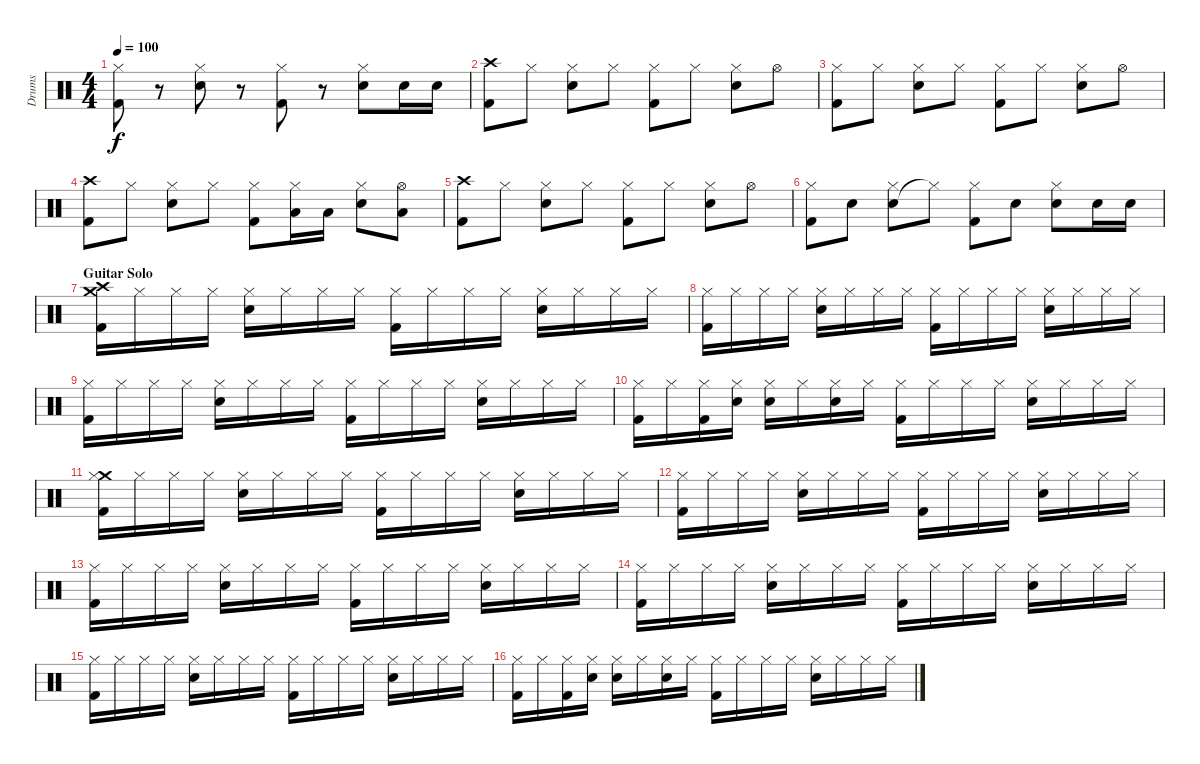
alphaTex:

\track ("Drums" "Drums") {instrument percussion}
\staff {score}
\articulation defaults
\ts (4 4)
\tempo 100
\clef neutral
\ks c
("Kick (hit) 2" "Hi-Hat (closed)").8{dy f} r.8 ("Snare (hit) 2" "Hi-Hat (closed)").8 r.8 ("Kick (hit) 2" "Hi-Hat (closed)").8 r.8 ("Snare (hit) 2" "Hi-Hat (closed)").8 "Snare (hit) 2".16 "Snare (hit) 2".16 |
("Kick (hit) 2" "Crash high (hit)").8 "Hi-Hat (closed)".8 ("Snare (hit) 2" "Hi-Hat (closed)").8 "Hi-Hat (closed)".8 ("Kick (hit) 2" "Hi-Hat (closed)").8 "Hi-Hat (closed)".8 ("Snare (hit) 2" "Hi-Hat (closed)").8 "Hi-Hat (open)".8 |
("Kick (hit) 2" "Hi-Hat (closed)").8 "Hi-Hat (closed)".8 ("Snare (hit) 2" "Hi-Hat (closed)").8 "Hi-Hat (closed)".8 ("Kick (hit) 2" "Hi-Hat (closed)").8 "Hi-Hat (closed)".8 ("Snare (hit) 2" "Hi-Hat (closed)").8 "Hi-Hat (open)".8 |
("Kick (hit) 2" "Crash high (hit)").8 "Hi-Hat (closed)".8 ("Snare (hit) 2" "Hi-Hat (closed)").8 "Hi-Hat (closed)".8 ("Kick (hit) 2" "Hi-Hat (closed)").8 ("Low Tom (hit)" "Hi-Hat (closed)").16 "Low Tom (hit)".16 ("Snare (hit) 2" "Hi-Hat (closed)").8 ("Low Tom (hit)" "Hi-Hat (open)").8 |
("Kick (hit) 2" "Crash high (hit)").8 "Hi-Hat (closed)".8 ("Snare (hit) 2" "Hi-Hat (closed)").8 "Hi-Hat (closed)".8 ("Kick (hit) 2" "Hi-Hat (closed)").8 "Hi-Hat (closed)".8 ("Snare (hit) 2" "Hi-Hat (closed)").8 "Hi-Hat (open)".8 |
("Kick (hit) 2" "Hi-Hat (closed)").8 "Snare (hit) 2".8 ("Snare (hit) 2" "Hi-Hat (closed)").8 "Hi-Hat (closed)"{t}.8 ("Kick (hit) 2" "Hi-Hat (closed)").8 "Snare (hit) 2".8 ("Snare (hit) 2" "Hi-Hat (closed)").8 "Snare (hit) 2".16 "Snare (hit) 2".16 |
\section ("" "Guitar Solo")
("Crash medium (hit)" "Crash high (hit)" "Kick (hit) 2").16 "Hi-Hat (closed)".16 "Hi-Hat (closed)".16 "Hi-Hat (closed)".16 ("Hi-Hat (closed)" "Snare (hit) 2").16 "Hi-Hat (closed)".16 "Hi-Hat (closed)".16 "Hi-Hat (closed)".16 ("Hi-Hat (closed)" "Kick (hit) 2").16 "Hi-Hat (closed)".16 "Hi-Hat (closed)".16 "Hi-Hat (closed)".16 ("Hi-Hat (closed)" "Snare (hit) 2").16 "Hi-Hat (closed)".16 "Hi-Hat (closed)".16 "Hi-Hat (closed)".16 |
("Hi-Hat (closed)" "Kick (hit) 2").16 "Hi-Hat (closed)".16 "Hi-Hat (closed)".16 "Hi-Hat (closed)".16 ("Hi-Hat (closed)" "Snare (hit) 2").16 "Hi-Hat (closed)".16 "Hi-Hat (closed)".16 "Hi-Hat (closed)".16 ("Hi-Hat (closed)" "Kick (hit) 2").16 "Hi-Hat (closed)".16 "Hi-Hat (closed)".16 "Hi-Hat (closed)".16 ("Hi-Hat (closed)" "Snare (hit) 2").16 "Hi-Hat (closed)".16 "Hi-Hat (closed)".16 "Hi-Hat (closed)".16 |
("Hi-Hat (closed)" "Kick (hit) 2").16 "Hi-Hat (closed)".16 "Hi-Hat (closed)".16 "Hi-Hat (closed)".16 ("Hi-Hat (closed)" "Snare (hit) 2").16 "Hi-Hat (closed)".16 "Hi-Hat (closed)".16 "Hi-Hat (closed)".16 ("Hi-Hat (closed)" "Kick (hit) 2").16 "Hi-Hat (closed)".16 "Hi-Hat (closed)".16 "Hi-Hat (closed)".16 ("Hi-Hat (closed)" "Snare (hit) 2").16 "Hi-Hat (closed)".16 "Hi-Hat (closed)".16 "Hi-Hat (closed)".16 |
("Hi-Hat (closed)" "Kick (hit) 2").16 "Hi-Hat (closed)".16 ("Hi-Hat (closed)" "Kick (hit) 2").16 ("Hi-Hat (closed)" "Snare (hit) 2").16 ("Hi-Hat (closed)" "Snare (hit) 2").16 "Hi-Hat (closed)".16 ("Hi-Hat (closed)" "Snare (hit) 2").16 "Hi-Hat (closed)".16 ("Hi-Hat (closed)" "Kick (hit) 2").16 "Hi-Hat (closed)".16 "Hi-Hat (closed)".16 "Hi-Hat (closed)".16 ("Hi-Hat (closed)" "Snare (hit) 2").16 "Hi-Hat (closed)".16 "Hi-Hat (closed)".16 "Hi-Hat (closed)".16 |
("Crash medium (hit)" "Hi-Hat (closed)" "Kick (hit) 2").16 "Hi-Hat (closed)".16 "Hi-Hat (closed)".16 "Hi-Hat (closed)".16 ("Hi-Hat (closed)" "Snare (hit) 2").16 "Hi-Hat (closed)".16 "Hi-Hat (closed)".16 "Hi-Hat (closed)".16 ("Hi-Hat (closed)" "Kick (hit) 2").16 "Hi-Hat (closed)".16 "Hi-Hat (closed)".16 "Hi-Hat (closed)".16 ("Hi-Hat (closed)" "Snare (hit) 2").16 "Hi-Hat (closed)".16 "Hi-Hat (closed)".16 "Hi-Hat (closed)".16 |
("Hi-Hat (closed)" "Kick (hit) 2").16 "Hi-Hat (closed)".16 "Hi-Hat (closed)".16 "Hi-Hat (closed)".16 ("Hi-Hat (closed)" "Snare (hit) 2").16 "Hi-Hat (closed)".16 "Hi-Hat (closed)".16 "Hi-Hat (closed)".16 ("Hi-Hat (closed)" "Kick (hit) 2").16 "Hi-Hat (closed)".16 "Hi-Hat (closed)".16 "Hi-Hat (closed)".16 ("Hi-Hat (closed)" "Snare (hit) 2").16 "Hi-Hat (closed)".16 "Hi-Hat (closed)".16 "Hi-Hat (closed)".16 |
("Hi-Hat (closed)" "Kick (hit) 2").16 "Hi-Hat (closed)".16 "Hi-Hat (closed)".16 "Hi-Hat (closed)".16 ("Hi-Hat (closed)" "Snare (hit) 2").16 "Hi-Hat (closed)".16 "Hi-Hat (closed)".16 "Hi-Hat (closed)".16 ("Hi-Hat (closed)" "Kick (hit) 2").16 "Hi-Hat (closed)".16 "Hi-Hat (closed)".16 "Hi-Hat (closed)".16 ("Hi-Hat (closed)" "Snare (hit) 2").16 "Hi-Hat (closed)".16 "Hi-Hat (closed)".16 "Hi-Hat (closed)".16 |
("Hi-Hat (closed)" "Kick (hit) 2").16 "Hi-Hat (closed)".16 "Hi-Hat (closed)".16 "Hi-Hat (closed)".16 ("Hi-Hat (closed)" "Snare (hit) 2").16 "Hi-Hat (closed)".16 "Hi-Hat (closed)".16 "Hi-Hat (closed)".16 ("Hi-Hat (closed)" "Kick (hit) 2").16 "Hi-Hat (closed)".16 "Hi-Hat (closed)".16 "Hi-Hat (closed)".16 ("Hi-Hat (closed)" "Snare (hit) 2").16 "Hi-Hat (closed)".16 "Hi-Hat (closed)".16 "Hi-Hat (closed)".16 |
("Hi-Hat (closed)" "Kick (hit) 2").16 "Hi-Hat (closed)".16 "Hi-Hat (closed)".16 "Hi-Hat (closed)".16 ("Hi-Hat (closed)" "Snare (hit) 2").16 "Hi-Hat (closed)".16 "Hi-Hat (closed)".16 "Hi-Hat (closed)".16 ("Hi-Hat (closed)" "Kick (hit) 2").16 "Hi-Hat (closed)".16 "Hi-Hat (closed)".16 "Hi-Hat (closed)".16 ("Hi-Hat (closed)" "Snare (hit) 2").16 "Hi-Hat (closed)".16 "Hi-Hat (closed)".16 "Hi-Hat (closed)".16 |
("Hi-Hat (closed)" "Kick (hit) 2").16 "Hi-Hat (closed)".16 ("Hi-Hat (closed)" "Kick (hit) 2").16 ("Hi-Hat (closed)" "Snare (hit) 2").16 ("Hi-Hat (closed)" "Snare (hit) 2").16 "Hi-Hat (closed)".16 ("Hi-Hat (closed)" "Snare (hit) 2").16 "Hi-Hat (closed)".16 ("Hi-Hat (closed)" "Kick (hit) 2").16 "Hi-Hat (closed)".16 "Hi-Hat (closed)".16 "Hi-Hat (closed)".16 ("Hi-Hat (closed)" "Snare (hit) 2").16 "Hi-Hat (closed)".16 "Hi-Hat (closed)".16 "Hi-Hat (closed)".16
